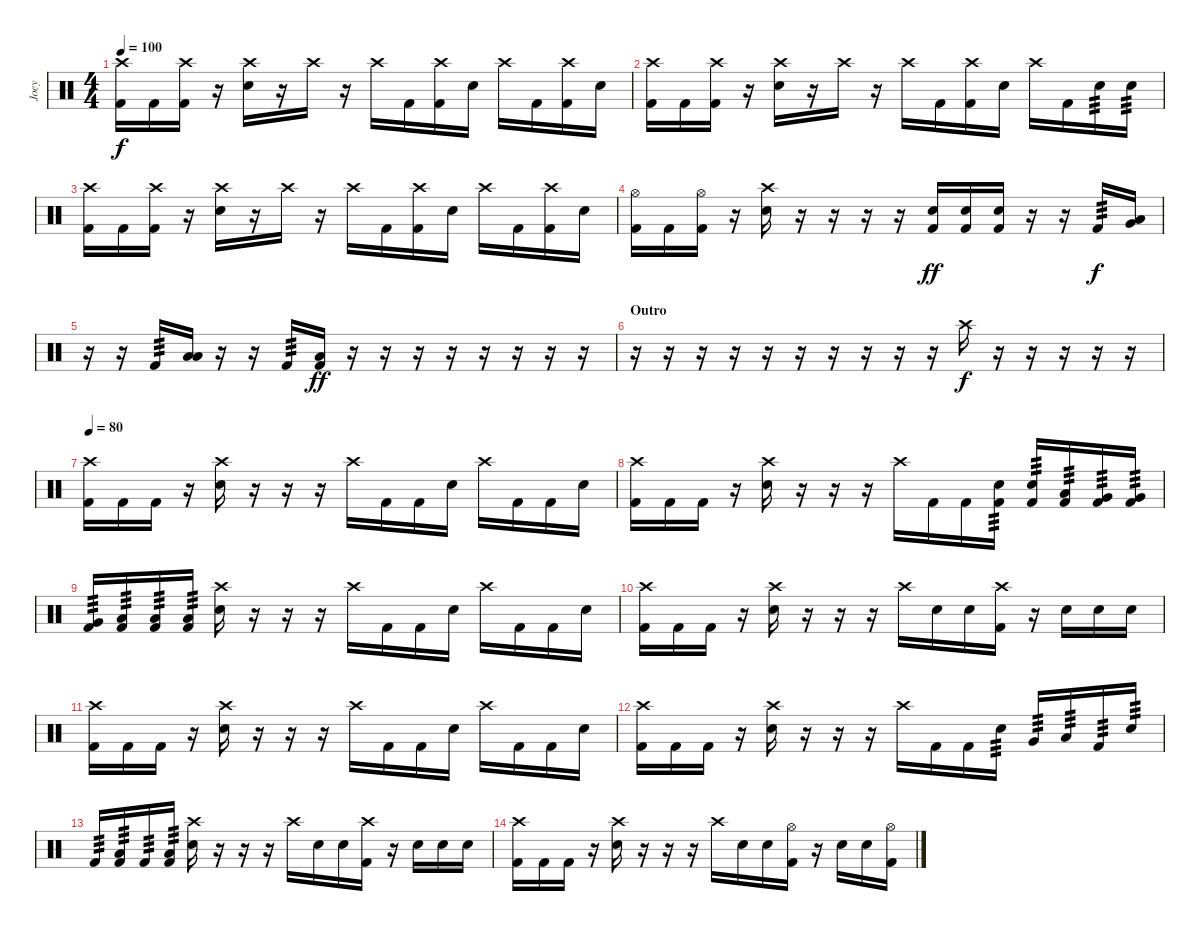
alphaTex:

\track ("Joey" "Joey") {instrument percussion}
\staff {score}
\articulation defaults
\ts (4 4)
\tempo 100
\clef neutral
\ks c
("Crash high (hit)" "Kick (hit) 2").16{dy f} "Kick (hit) 2".16 ("Crash high (hit)" "Kick (hit) 2").16 r.16 ("Crash high (hit)" "Electric Snare (hit)").16 r.16 "Crash high (hit)".16 r.16 "Crash high (hit)".16 "Kick (hit) 2".16 ("Crash high (hit)" "Kick (hit) 2").16 "Electric Snare (hit)".16 "Crash high (hit)".16 "Kick (hit) 2".16 ("Crash high (hit)" "Kick (hit) 2").16 "Electric Snare (hit)".16 |
("Crash high (hit)" "Kick (hit) 2").16 "Kick (hit) 2".16 ("Crash high (hit)" "Kick (hit) 2").16 r.16 ("Crash high (hit)" "Electric Snare (hit)").16 r.16 "Crash high (hit)".16 r.16 "Crash high (hit)".16 "Kick (hit) 2".16 ("Crash high (hit)" "Kick (hit) 2").16 "Electric Snare (hit)".16 "Crash high (hit)".16 "Kick (hit) 2".16 "Electric Snare (hit)".16{tp 3} "Electric Snare (hit)".16{tp 3} |
("Crash high (hit)" "Kick (hit) 2").16 "Kick (hit) 2".16 ("Crash high (hit)" "Kick (hit) 2").16 r.16 ("Crash high (hit)" "Electric Snare (hit)").16 r.16 "Crash high (hit)".16 r.16 "Crash high (hit)".16 "Kick (hit) 2".16 ("Crash high (hit)" "Kick (hit) 2").16 "Electric Snare (hit)".16 "Crash high (hit)".16 "Kick (hit) 2".16 ("Crash high (hit)" "Kick (hit) 2").16 "Electric Snare (hit)".16 |
("Hi-Hat (open)" "Kick (hit) 2").16 "Kick (hit) 2".16 ("Hi-Hat (open)" "Kick (hit) 2").16 r.16 ("Crash high (hit)" "Electric Snare (hit)").16 r.16 r.16 r.16 r.16 ("Kick (hit) 2" "Electric Snare (hit)").16{dy ff} ("Kick (hit) 2" "Electric Snare (hit)").16 ("Kick (hit) 2" "Electric Snare (hit)").16 r.16 r.16 "Kick (hit) 2".16{tp 3 dy f} ("Very Low Tom (hit)" "Low Floor Tom (hit)").16 |
r.16 r.16 "Kick (hit) 2".16{tp 3} ("Low Floor Tom (hit)" "Low Floor Tom (hit)").16 r.16 r.16 "Kick (hit) 2".16{tp 3} ("Kick (hit) 2" "Low Floor Tom (hit)").16{dy ff} r.16 r.16 r.16 r.16 r.16 r.16 r.16 r.16 |
\section ("" "Outro")
r.16 r.16 r.16 r.16 r.16 r.16 r.16 r.16 r.16 r.16 "Crash high (hit)".16{dy f} r.16 r.16 r.16 r.16 r.16 |
\tempo 80
("Crash high (hit)" "Kick (hit) 2").16 "Kick (hit) 2".16 "Kick (hit) 2".16 r.16 ("Crash high (hit)" "Electric Snare (hit)").16 r.16 r.16 r.16 "Crash high (hit)".16 "Kick (hit) 2".16 "Kick (hit) 2".16 "Electric Snare (hit)".16 "Crash high (hit)".16 "Kick (hit) 2".16 "Kick (hit) 2".16 "Electric Snare (hit)".16 |
("Crash high (hit)" "Kick (hit) 2").16 "Kick (hit) 2".16 "Kick (hit) 2".16 r.16 ("Crash high (hit)" "Electric Snare (hit)").16 r.16 r.16 r.16 "Crash high (hit)".16 "Kick (hit) 2".16 "Kick (hit) 2".16 ("Electric Snare (hit)" "Kick (hit) 2").16{tp 3} ("Electric Snare (hit)" "Kick (hit) 2").16{tp 3} ("Low Tom (hit)" "Kick (hit) 2").16{tp 3} ("Very Low Tom (hit)" "Kick (hit) 2").16{tp 3} ("Very Low Tom (hit)" "Kick (hit) 2").16{tp 3} |
("Very Low Tom (hit)" "Kick (hit) 2").16{tp 3} ("Low Floor Tom (hit)" "Kick (hit) 2").16{tp 3} ("Low Floor Tom (hit)" "Kick (hit) 2").16{tp 3} ("Low Floor Tom (hit)" "Kick (hit) 2").16{tp 3} ("Crash high (hit)" "Electric Snare (hit)").16 r.16 r.16 r.16 "Crash high (hit)".16 "Kick (hit) 2".16 "Kick (hit) 2".16 "Electric Snare (hit)".16 "Crash high (hit)".16 "Kick (hit) 2".16 "Kick (hit) 2".16 "Electric Snare (hit)".16 |
("Crash high (hit)" "Kick (hit) 2").16 "Kick (hit) 2".16 "Kick (hit) 2".16 r.16 ("Crash high (hit)" "Electric Snare (hit)").16 r.16 r.16 r.16 "Crash high (hit)".16 "Electric Snare (hit)".16 "Electric Snare (hit)".16 ("Crash high (hit)" "Kick (hit) 2").16 r.16 "Electric Snare (hit)".16 "Electric Snare (hit)".16 "Electric Snare (hit)".16 |
("Crash high (hit)" "Kick (hit) 2").16 "Kick (hit) 2".16 "Kick (hit) 2".16 r.16 ("Crash high (hit)" "Electric Snare (hit)").16 r.16 r.16 r.16 "Crash high (hit)".16 "Kick (hit) 2".16 "Kick (hit) 2".16 "Electric Snare (hit)".16 "Crash high (hit)".16 "Kick (hit) 2".16 "Kick (hit) 2".16 "Electric Snare (hit)".16 |
("Crash high (hit)" "Kick (hit) 2").16 "Kick (hit) 2".16 "Kick (hit) 2".16 r.16 ("Crash high (hit)" "Electric Snare (hit)").16 r.16 r.16 r.16 "Crash high (hit)".16 "Kick (hit) 2".16 "Kick (hit) 2".16 "Electric Snare (hit)".16{tp 3} "Very Low Tom (hit)".16{tp 3} "Low Floor Tom (hit)".16{tp 3} "Kick (hit) 2".16{tp 3} "Electric Snare (hit)".16{tp 3} |
"Kick (hit) 2".16{tp 3} ("Low Floor Tom (hit)" "Kick (hit) 2").16{tp 3} "Kick (hit) 2".16{tp 3} ("Low Floor Tom (hit)" "Kick (hit) 2").16{tp 3} ("Crash high (hit)" "Electric Snare (hit)").16 r.16 r.16 r.16 "Crash high (hit)".16 "Electric Snare (hit)".16 "Electric Snare (hit)".16 ("Crash high (hit)" "Kick (hit) 2").16 r.16 "Electric Snare (hit)".16 "Electric Snare (hit)".16 "Electric Snare (hit)".16 |
("Crash high (hit)" "Kick (hit) 2").16 "Kick (hit) 2".16 "Kick (hit) 2".16 r.16 ("Crash high (hit)" "Electric Snare (hit)").16 r.16 r.16 r.16 "Crash high (hit)".16 "Electric Snare (hit)".16 "Electric Snare (hit)".16 ("Hi-Hat (open)" "Kick (hit) 2").16 r.16 "Electric Snare (hit)".16 "Electric Snare (hit)".16 ("Hi-Hat (open)" "Kick (hit) 2").16
